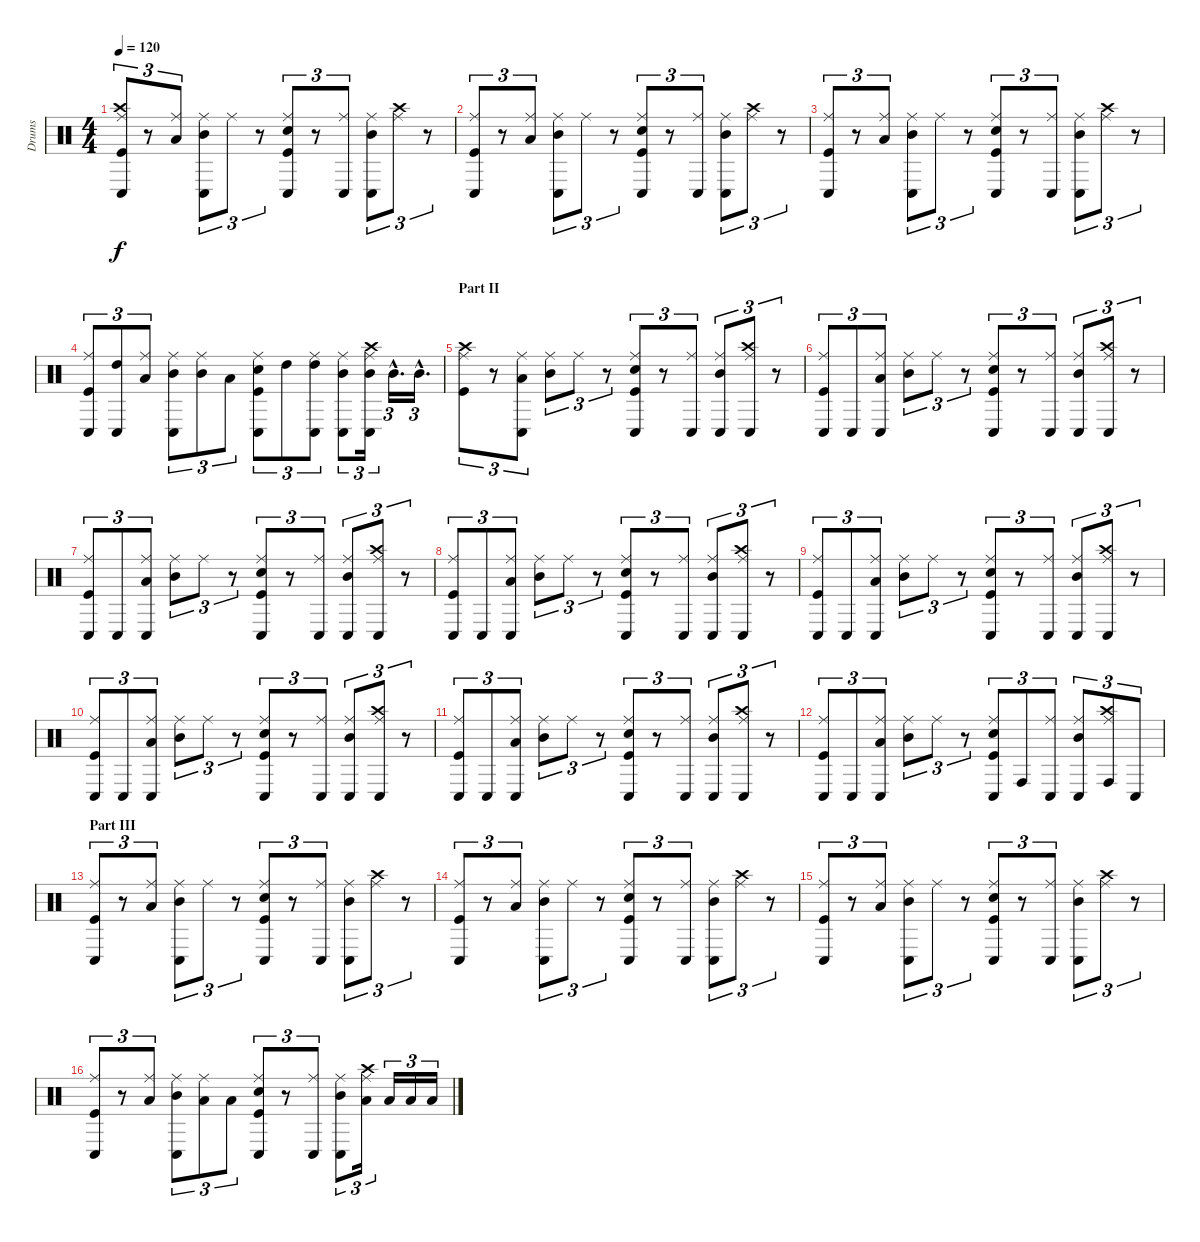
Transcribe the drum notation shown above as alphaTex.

\track ("Drums" "Drums") {instrument percussion}
\staff {score}
\articulation defaults
\ts (4 4)
\tempo 120
\clef neutral
\ks c
("Kick (hit)" "Ride (middle)" "Crash high (hit)" "Conga low (hit)").8{tu (3 2) dy f} r.8{tu (3 2)} ("Low Floor Tom (hit)" "Ride (middle)").8{tu (3 2)} ("Mid Tom (hit)" "Ride (middle)" "Conga low (hit)").8{tu (3 2)} "Ride (middle)".8{tu (3 2)} r.8{tu (3 2)} ("Kick (hit)" "Snare (hit) 2" "Ride (middle)" "Conga low (hit)").8{tu (3 2)} r.8{tu (3 2)} ("Ride (middle)" "Conga low (hit)").8{tu (3 2)} ("Mid Tom (hit)" "Ride (middle)" "Conga low (hit)").8{tu (3 2)} ("Ride (middle)" "Crash high (hit)").8{tu (3 2)} r.8{tu (3 2)} |
("Kick (hit)" "Ride (middle)" "Conga low (hit)").8{tu (3 2)} r.8{tu (3 2)} ("Low Floor Tom (hit)" "Ride (middle)").8{tu (3 2)} ("Mid Tom (hit)" "Ride (middle)" "Conga low (hit)").8{tu (3 2)} "Ride (middle)".8{tu (3 2)} r.8{tu (3 2)} ("Kick (hit)" "Snare (hit) 2" "Ride (middle)" "Conga low (hit)").8{tu (3 2)} r.8{tu (3 2)} ("Ride (middle)" "Conga low (hit)").8{tu (3 2)} ("Mid Tom (hit)" "Ride (middle)" "Conga low (hit)").8{tu (3 2)} ("Ride (middle)" "Crash high (hit)").8{tu (3 2)} r.8{tu (3 2)} |
("Kick (hit)" "Ride (middle)" "Conga low (hit)").8{tu (3 2)} r.8{tu (3 2)} ("Low Floor Tom (hit)" "Ride (middle)").8{tu (3 2)} ("Mid Tom (hit)" "Ride (middle)" "Conga low (hit)").8{tu (3 2)} "Ride (middle)".8{tu (3 2)} r.8{tu (3 2)} ("Kick (hit)" "Snare (hit) 2" "Ride (middle)" "Conga low (hit)").8{tu (3 2)} r.8{tu (3 2)} ("Ride (middle)" "Conga low (hit)").8{tu (3 2)} ("Mid Tom (hit)" "Ride (middle)" "Conga low (hit)").8{tu (3 2)} ("Ride (middle)" "Crash high (hit)").8{tu (3 2)} r.8{tu (3 2)} |
("Kick (hit)" "Ride (middle)" "Conga low (hit)").8{tu (3 2)} ("High Tom (hit)" "Conga low (hit)").8{tu (3 2)} ("Low Floor Tom (hit)" "Ride (middle)").8{tu (3 2)} ("Mid Tom (hit)" "Ride (middle)" "Conga low (hit)").8{tu (3 2)} ("Mid Tom (hit)" "Ride (middle)").8{tu (3 2)} "Low Tom (hit)".8{tu (3 2)} ("Kick (hit)" "Snare (hit) 2" "Ride (middle)" "Conga low (hit)").8{tu (3 2)} "High Tom (hit)".8{tu (3 2)} ("High Tom (hit)" "Ride (middle)" "Conga low (hit)").8{tu (3 2)} ("Mid Tom (hit)" "Ride (middle)" "Conga low (hit)").8{tu (3 2)} ("Mid Tom (hit)" "Ride (middle)" "Crash high (hit)" "Conga low (hit)").16{tu (3 2)} "Mid Tom (hit)"{hac}.16{d tu (3 2)} "Mid Tom (hit)"{hac}.16{d tu (3 2)} |
\section ("" "Part II")
("Kick (hit)" "Ride (middle)" "Crash high (hit)").8{tu (3 2)} r.8{tu (3 2)} ("Low Floor Tom (hit)" "Ride (middle)" "Conga low (hit)").8{tu (3 2)} ("Mid Tom (hit)" "Ride (middle)").8{tu (3 2)} "Ride (middle)".8{tu (3 2)} r.8{tu (3 2)} ("Kick (hit)" "Snare (hit) 2" "Ride (middle)" "Conga low (hit)").8{tu (3 2)} r.8{tu (3 2)} ("Ride (middle)" "Conga low (hit)").8{tu (3 2)} ("Mid Tom (hit)" "Ride (middle)" "Conga low (hit)").8{tu (3 2)} ("Ride (middle)" "Crash high (hit)" "Conga low (hit)").8{tu (3 2)} r.8{tu (3 2)} |
("Kick (hit)" "Ride (middle)" "Conga low (hit)").8{tu (3 2)} "Conga low (hit)".8{tu (3 2)} ("Low Floor Tom (hit)" "Ride (middle)" "Conga low (hit)").8{tu (3 2)} ("Mid Tom (hit)" "Ride (middle)").8{tu (3 2)} "Ride (middle)".8{tu (3 2)} r.8{tu (3 2)} ("Kick (hit)" "Snare (hit) 2" "Ride (middle)" "Conga low (hit)").8{tu (3 2)} r.8{tu (3 2)} ("Ride (middle)" "Conga low (hit)").8{tu (3 2)} ("Mid Tom (hit)" "Ride (middle)" "Conga low (hit)").8{tu (3 2)} ("Ride (middle)" "Crash high (hit)" "Conga low (hit)").8{tu (3 2)} r.8{tu (3 2)} |
("Kick (hit)" "Ride (middle)" "Conga low (hit)").8{tu (3 2)} "Conga low (hit)".8{tu (3 2)} ("Low Floor Tom (hit)" "Ride (middle)" "Conga low (hit)").8{tu (3 2)} ("Mid Tom (hit)" "Ride (middle)").8{tu (3 2)} "Ride (middle)".8{tu (3 2)} r.8{tu (3 2)} ("Kick (hit)" "Snare (hit) 2" "Ride (middle)" "Conga low (hit)").8{tu (3 2)} r.8{tu (3 2)} ("Ride (middle)" "Conga low (hit)").8{tu (3 2)} ("Mid Tom (hit)" "Ride (middle)" "Conga low (hit)").8{tu (3 2)} ("Ride (middle)" "Crash high (hit)" "Conga low (hit)").8{tu (3 2)} r.8{tu (3 2)} |
("Kick (hit)" "Ride (middle)" "Conga low (hit)").8{tu (3 2)} "Conga low (hit)".8{tu (3 2)} ("Low Floor Tom (hit)" "Ride (middle)" "Conga low (hit)").8{tu (3 2)} ("Mid Tom (hit)" "Ride (middle)").8{tu (3 2)} "Ride (middle)".8{tu (3 2)} r.8{tu (3 2)} ("Kick (hit)" "Snare (hit) 2" "Ride (middle)" "Conga low (hit)").8{tu (3 2)} r.8{tu (3 2)} ("Ride (middle)" "Conga low (hit)").8{tu (3 2)} ("Mid Tom (hit)" "Ride (middle)" "Conga low (hit)").8{tu (3 2)} ("Ride (middle)" "Crash high (hit)" "Conga low (hit)").8{tu (3 2)} r.8{tu (3 2)} |
("Kick (hit)" "Ride (middle)" "Conga low (hit)").8{tu (3 2)} "Conga low (hit)".8{tu (3 2)} ("Low Floor Tom (hit)" "Ride (middle)" "Conga low (hit)").8{tu (3 2)} ("Mid Tom (hit)" "Ride (middle)").8{tu (3 2)} "Ride (middle)".8{tu (3 2)} r.8{tu (3 2)} ("Kick (hit)" "Snare (hit) 2" "Ride (middle)" "Conga low (hit)").8{tu (3 2)} r.8{tu (3 2)} ("Ride (middle)" "Conga low (hit)").8{tu (3 2)} ("Mid Tom (hit)" "Ride (middle)" "Conga low (hit)").8{tu (3 2)} ("Ride (middle)" "Crash high (hit)" "Conga low (hit)").8{tu (3 2)} r.8{tu (3 2)} |
("Kick (hit)" "Ride (middle)" "Conga low (hit)").8{tu (3 2)} "Conga low (hit)".8{tu (3 2)} ("Low Floor Tom (hit)" "Ride (middle)" "Conga low (hit)").8{tu (3 2)} ("Mid Tom (hit)" "Ride (middle)").8{tu (3 2)} "Ride (middle)".8{tu (3 2)} r.8{tu (3 2)} ("Kick (hit)" "Snare (hit) 2" "Ride (middle)" "Conga low (hit)").8{tu (3 2)} r.8{tu (3 2)} ("Ride (middle)" "Conga low (hit)").8{tu (3 2)} ("Mid Tom (hit)" "Ride (middle)" "Conga low (hit)").8{tu (3 2)} ("Ride (middle)" "Crash high (hit)" "Conga low (hit)").8{tu (3 2)} r.8{tu (3 2)} |
("Kick (hit)" "Ride (middle)" "Conga low (hit)").8{tu (3 2)} "Conga low (hit)".8{tu (3 2)} ("Low Floor Tom (hit)" "Ride (middle)" "Conga low (hit)").8{tu (3 2)} ("Mid Tom (hit)" "Ride (middle)").8{tu (3 2)} "Ride (middle)".8{tu (3 2)} r.8{tu (3 2)} ("Kick (hit)" "Snare (hit) 2" "Ride (middle)" "Conga low (hit)").8{tu (3 2)} r.8{tu (3 2)} ("Ride (middle)" "Conga low (hit)").8{tu (3 2)} ("Mid Tom (hit)" "Ride (middle)" "Conga low (hit)").8{tu (3 2)} ("Ride (middle)" "Crash high (hit)" "Conga low (hit)").8{tu (3 2)} r.8{tu (3 2)} |
("Kick (hit)" "Ride (middle)" "Conga low (hit)").8{tu (3 2)} "Conga low (hit)".8{tu (3 2)} ("Low Floor Tom (hit)" "Ride (middle)" "Conga low (hit)").8{tu (3 2)} ("Mid Tom (hit)" "Ride (middle)").8{tu (3 2)} "Ride (middle)".8{tu (3 2)} r.8{tu (3 2)} ("Kick (hit)" "Snare (hit) 2" "Ride (middle)" "Conga low (hit)").8{tu (3 2)} "Conga high (hit)".8{tu (3 2)} ("Ride (middle)" "Conga low (hit)").8{tu (3 2)} ("Mid Tom (hit)" "Ride (middle)" "Conga low (hit)").8{tu (3 2)} ("Ride (middle)" "Crash high (hit)" "Conga high (hit)").8{tu (3 2)} "Conga low (hit)".8{tu (3 2)} |
\section ("" "Part III")
("Kick (hit)" "Ride (middle)" "Conga low (hit)").8{tu (3 2)} r.8{tu (3 2)} ("Low Floor Tom (hit)" "Ride (middle)").8{tu (3 2)} ("Mid Tom (hit)" "Ride (middle)" "Conga low (hit)").8{tu (3 2)} "Ride (middle)".8{tu (3 2)} r.8{tu (3 2)} ("Kick (hit)" "Snare (hit) 2" "Ride (middle)" "Conga low (hit)").8{tu (3 2)} r.8{tu (3 2)} ("Ride (middle)" "Conga low (hit)").8{tu (3 2)} ("Mid Tom (hit)" "Ride (middle)" "Conga low (hit)").8{tu (3 2)} ("Ride (middle)" "Crash high (hit)").8{tu (3 2)} r.8{tu (3 2)} |
("Kick (hit)" "Ride (middle)" "Conga low (hit)").8{tu (3 2)} r.8{tu (3 2)} ("Low Floor Tom (hit)" "Ride (middle)").8{tu (3 2)} ("Mid Tom (hit)" "Ride (middle)" "Conga low (hit)").8{tu (3 2)} "Ride (middle)".8{tu (3 2)} r.8{tu (3 2)} ("Kick (hit)" "Snare (hit) 2" "Ride (middle)" "Conga low (hit)").8{tu (3 2)} r.8{tu (3 2)} ("Ride (middle)" "Conga low (hit)").8{tu (3 2)} ("Mid Tom (hit)" "Ride (middle)" "Conga low (hit)").8{tu (3 2)} ("Ride (middle)" "Crash high (hit)").8{tu (3 2)} r.8{tu (3 2)} |
("Kick (hit)" "Ride (middle)" "Conga low (hit)").8{tu (3 2)} r.8{tu (3 2)} ("Low Floor Tom (hit)" "Ride (middle)").8{tu (3 2)} ("Mid Tom (hit)" "Ride (middle)" "Conga low (hit)").8{tu (3 2)} "Ride (middle)".8{tu (3 2)} r.8{tu (3 2)} ("Kick (hit)" "Snare (hit) 2" "Ride (middle)" "Conga low (hit)").8{tu (3 2)} r.8{tu (3 2)} ("Ride (middle)" "Conga low (hit)").8{tu (3 2)} ("Mid Tom (hit)" "Ride (middle)" "Conga low (hit)").8{tu (3 2)} ("Ride (middle)" "Crash high (hit)").8{tu (3 2)} r.8{tu (3 2)} |
("Kick (hit)" "Ride (middle)" "Conga low (hit)").8{tu (3 2)} r.8{tu (3 2)} ("Low Floor Tom (hit)" "Ride (middle)").8{tu (3 2)} ("Mid Tom (hit)" "Ride (middle)" "Conga low (hit)").8{tu (3 2)} ("Low Tom (hit)" "Ride (middle)").8{tu (3 2)} "Low Tom (hit)".8{tu (3 2)} ("Kick (hit)" "Snare (hit) 2" "Ride (middle)" "Conga low (hit)").8{tu (3 2)} r.8{tu (3 2)} ("Ride (middle)" "Conga low (hit)").8{tu (3 2)} ("Mid Tom (hit)" "Ride (middle)" "Conga low (hit)").8{tu (3 2)} ("Low Tom (hit)" "Ride (middle)" "Crash high (hit)").16{tu (3 2)} "Low Tom (hit)".16{tu (3 2)} "Low Tom (hit)".16{tu (3 2)} "Low Tom (hit)".16{tu (3 2)}
